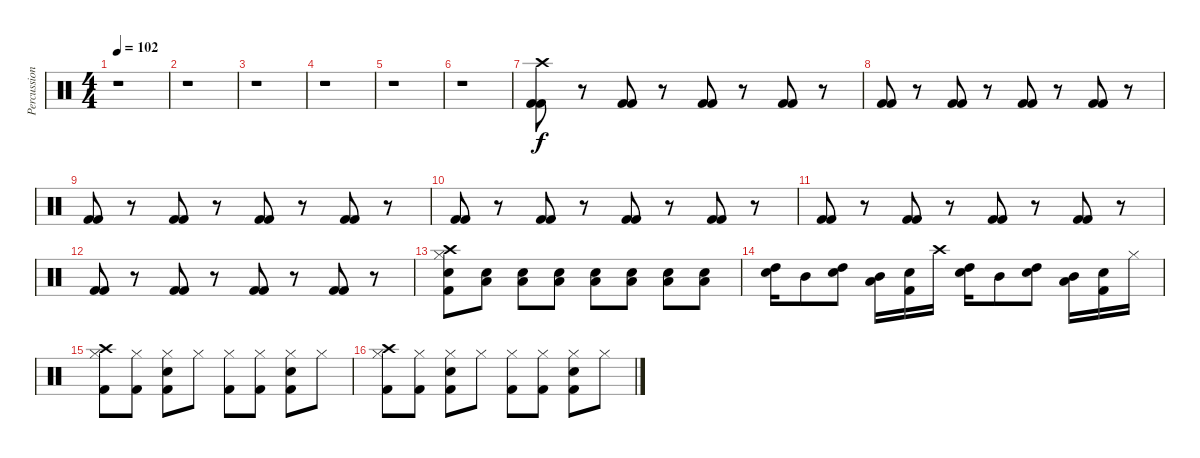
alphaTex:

\track ("Percussion" "Percussion") {instrument percussion}
\staff {score}
\articulation defaults
\ts (4 4)
\tempo 102
\clef neutral
\ks c
r.1{dy f} |
r.1 |
r.1 |
r.1 |
r.1 |
r.1 |
("Kick (hit) 2" "Kick (hit) 2" "Crash high (hit)").8 r.8 ("Kick (hit) 2" "Kick (hit) 2").8 r.8 ("Kick (hit) 2" "Kick (hit) 2").8 r.8 ("Kick (hit) 2" "Kick (hit) 2").8 r.8 |
("Kick (hit) 2" "Kick (hit) 2").8 r.8 ("Kick (hit) 2" "Kick (hit) 2").8 r.8 ("Kick (hit) 2" "Kick (hit) 2").8 r.8 ("Kick (hit) 2" "Kick (hit) 2").8 r.8 |
("Kick (hit) 2" "Kick (hit) 2").8 r.8 ("Kick (hit) 2" "Kick (hit) 2").8 r.8 ("Kick (hit) 2" "Kick (hit) 2").8 r.8 ("Kick (hit) 2" "Kick (hit) 2").8 r.8 |
("Kick (hit) 2" "Kick (hit) 2").8 r.8 ("Kick (hit) 2" "Kick (hit) 2").8 r.8 ("Kick (hit) 2" "Kick (hit) 2").8 r.8 ("Kick (hit) 2" "Kick (hit) 2").8 r.8 |
("Kick (hit) 2" "Kick (hit) 2").8 r.8 ("Kick (hit) 2" "Kick (hit) 2").8 r.8 ("Kick (hit) 2" "Kick (hit) 2").8 r.8 ("Kick (hit) 2" "Kick (hit) 2").8 r.8 |
("Kick (hit) 2" "Kick (hit) 2").8 r.8 ("Kick (hit) 2" "Kick (hit) 2").8 r.8 ("Kick (hit) 2" "Kick (hit) 2").8 r.8 ("Kick (hit) 2" "Kick (hit) 2").8 r.8 |
("Kick (hit) 2" "Snare (hit) 2" "Hi-Hat (closed)" "Crash high (hit)").8 ("Snare (hit) 2" "Low Floor Tom (hit)").8 ("Snare (hit) 2" "Low Floor Tom (hit)").8 ("Snare (hit) 2" "Low Floor Tom (hit)").8 ("Snare (hit) 2" "Low Floor Tom (hit)").8 ("Snare (hit) 2" "Low Floor Tom (hit)").8 ("Snare (hit) 2" "Low Floor Tom (hit)").8 ("Snare (hit) 2" "Low Floor Tom (hit)").8 |
("High Tom (hit)" "Snare (hit) 2").16 "Mid Tom (hit)".8 ("High Tom (hit)" "Snare (hit) 2").8 ("Mid Tom (hit)" "Low Floor Tom (hit)").16 ("Kick (hit) 2" "Snare (hit) 2").16 "Crash high (hit)".16 ("High Tom (hit)" "Snare (hit) 2").16 "Mid Tom (hit)".8 ("High Tom (hit)" "Snare (hit) 2").8 ("Mid Tom (hit)" "Low Floor Tom (hit)").16 ("Kick (hit) 2" "Snare (hit) 2").16 "Hi-Hat (closed)".16 |
("Kick (hit) 2" "Hi-Hat (closed)" "Crash high (hit)").8 ("Kick (hit) 2" "Hi-Hat (closed)").8 ("Kick (hit) 2" "Snare (hit) 2" "Hi-Hat (closed)").8 "Hi-Hat (closed)".8 ("Kick (hit) 2" "Hi-Hat (closed)").8 ("Kick (hit) 2" "Hi-Hat (closed)").8 ("Kick (hit) 2" "Snare (hit) 2" "Hi-Hat (closed)").8 "Hi-Hat (closed)".8 |
("Kick (hit) 2" "Hi-Hat (closed)" "Crash high (hit)").8 ("Kick (hit) 2" "Hi-Hat (closed)").8 ("Kick (hit) 2" "Snare (hit) 2" "Hi-Hat (closed)").8 "Hi-Hat (closed)".8 ("Kick (hit) 2" "Hi-Hat (closed)").8 ("Kick (hit) 2" "Hi-Hat (closed)").8 ("Kick (hit) 2" "Snare (hit) 2" "Hi-Hat (closed)").8 "Hi-Hat (closed)".8
